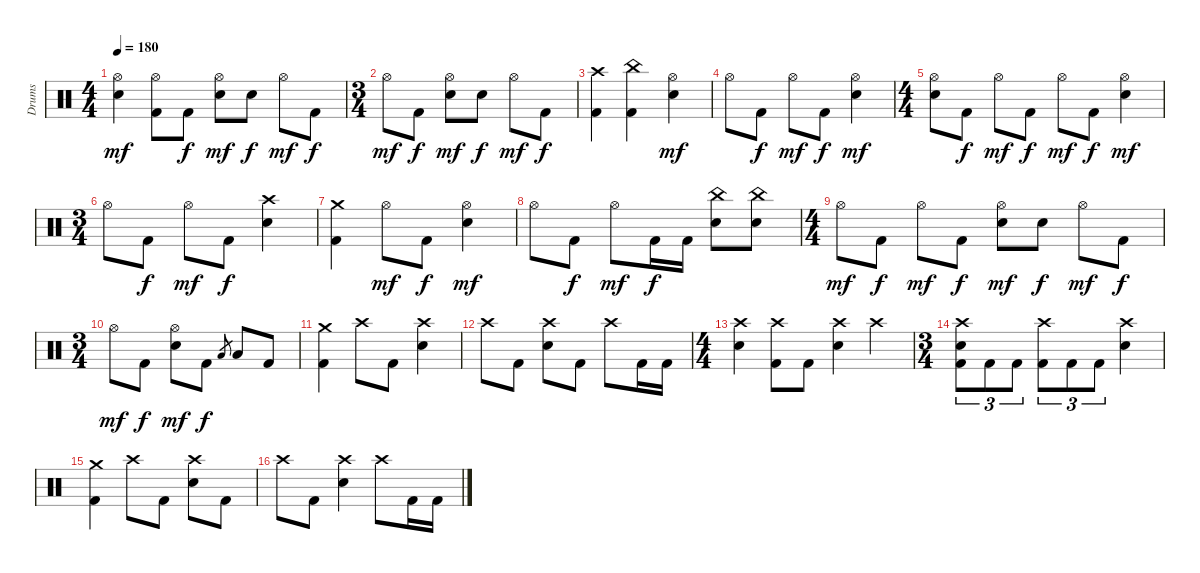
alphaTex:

\track ("Drums" "Drums") {instrument percussion}
\staff {score}
\articulation defaults
\ts (4 4)
\tempo 180
\clef neutral
\ks c
("Hi-Hat (open)" "Electric Snare (hit)").4{dy mf} ("Kick (hit) 2" "Hi-Hat (open)").8 "Kick (hit) 2".8{dy f} ("Hi-Hat (open)" "Electric Snare (hit)").8{dy mf} "Electric Snare (hit)".8{dy f} "Hi-Hat (open)".8{dy mf} "Kick (hit) 2".8{dy f} |
\ts (3 4)
"Hi-Hat (open)".8{dy mf} "Kick (hit) 2".8{dy f} ("Hi-Hat (open)" "Electric Snare (hit)").8{dy mf} "Electric Snare (hit)".8{dy f} "Hi-Hat (open)".8{dy mf} "Kick (hit) 2".8{dy f} |
("Kick (hit) 2" "Crash high (hit)").4 ("Kick (hit) 2" "China (hit)").4 ("Hi-Hat (open)" "Electric Snare (hit)").4{dy mf} |
"Hi-Hat (open)".8 "Kick (hit) 2".8{dy f} "Hi-Hat (open)".8{dy mf} "Kick (hit) 2".8{dy f} ("Hi-Hat (open)" "Electric Snare (hit)").4{dy mf} |
\ts (4 4)
("Hi-Hat (open)" "Electric Snare (hit)").8 "Kick (hit) 2".8{dy f} "Hi-Hat (open)".8{dy mf} "Kick (hit) 2".8{dy f} "Hi-Hat (open)".8{dy mf} "Kick (hit) 2".8{dy f} ("Hi-Hat (open)" "Electric Snare (hit)").4{dy mf} |
\ts (3 4)
"Hi-Hat (open)".8 "Kick (hit) 2".8{dy f} "Hi-Hat (open)".8{dy mf} "Kick (hit) 2".8{dy f} ("Crash high (hit)" "Electric Snare (hit)").4 |
("Kick (hit) 2" "Crash medium (hit)").4 "Hi-Hat (open)".8{dy mf} "Kick (hit) 2".8{dy f} ("Hi-Hat (open)" "Electric Snare (hit)").4{dy mf} |
"Hi-Hat (open)".8 "Kick (hit) 2".8{dy f} "Hi-Hat (open)".8{dy mf} "Kick (hit) 2".16{dy f} "Kick (hit) 2".16 ("China (hit)" "Electric Snare (hit)").8 ("China (hit)" "Electric Snare (hit)").8 |
\ts (4 4)
"Hi-Hat (open)".8{dy mf} "Kick (hit) 2".8{dy f} "Hi-Hat (open)".8{dy mf} "Kick (hit) 2".8{dy f} ("Hi-Hat (open)" "Electric Snare (hit)").8{dy mf} "Electric Snare (hit)".8{dy f} "Hi-Hat (open)".8{dy mf} "Kick (hit) 2".8{dy f} |
\ts (3 4)
"Hi-Hat (open)".8{dy mf} "Kick (hit) 2".8{dy f} ("Hi-Hat (open)" "Electric Snare (hit)").8{dy mf} "Kick (hit) 2".8{dy f} "Low Tom (hit)".8{gr} "Low Tom (hit)".8 "Kick (hit) 2".8 |
("Kick (hit) 2" "Crash medium (hit)").4 "Crash high (hit)".8 "Kick (hit) 2".8 ("Crash high (hit)" "Electric Snare (hit)").4 |
"Crash high (hit)".8 "Kick (hit) 2".8 ("Crash high (hit)" "Electric Snare (hit)").8 "Kick (hit) 2".8 "Crash high (hit)".8 "Kick (hit) 2".16 "Kick (hit) 2".16 |
\ts (4 4)
("Crash high (hit)" "Electric Snare (hit)").4 ("Kick (hit) 2" "Crash high (hit)").8 "Kick (hit) 2".8 ("Crash high (hit)" "Electric Snare (hit)").4 "Crash high (hit)".4 |
\ts (3 4)
("Kick (hit) 2" "Crash high (hit)" "Electric Snare (hit)").8{tu (3 2)} "Kick (hit) 2".8{tu (3 2)} "Kick (hit) 2".8{tu (3 2)} ("Kick (hit) 2" "Crash high (hit)").8{tu (3 2)} "Kick (hit) 2".8{tu (3 2)} "Kick (hit) 2".8{tu (3 2)} ("Crash high (hit)" "Electric Snare (hit)").4 |
("Kick (hit) 2" "Crash medium (hit)").4 "Crash high (hit)".8 "Kick (hit) 2".8 ("Crash high (hit)" "Electric Snare (hit)").8 "Kick (hit) 2".8 |
"Crash high (hit)".8 "Kick (hit) 2".8 ("Crash high (hit)" "Electric Snare (hit)").4 "Crash high (hit)".8 "Kick (hit) 2".16 "Kick (hit) 2".16
